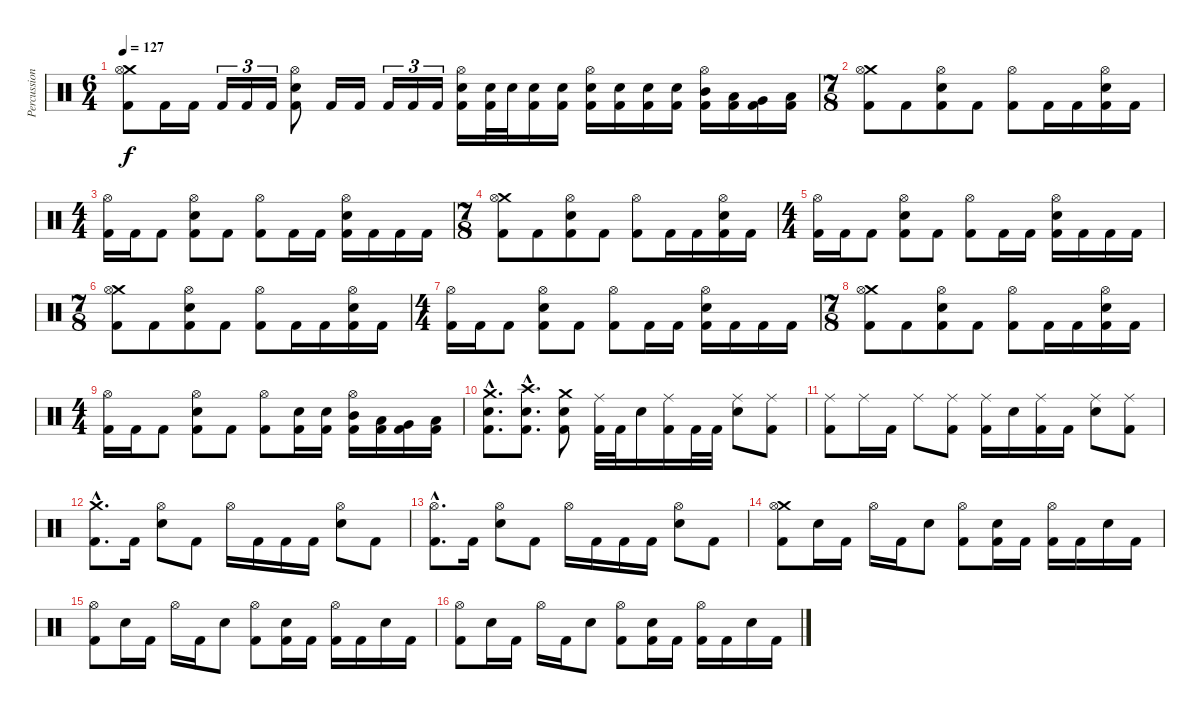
\track ("Percussion" "Percussion") {instrument percussion}
\staff {score}
\articulation defaults
\ts (6 4)
\tempo 127
\clef neutral
\ks c
("Crash medium (hit)" "Hi-Hat (open)" "Kick (hit) 2").8{dy f} "Kick (hit) 2".16 "Kick (hit) 2".16 "Kick (hit) 2".16{tu (3 2)} "Kick (hit) 2".16{tu (3 2)} "Kick (hit) 2".16{tu (3 2)} ("Hi-Hat (open)" "Electric Snare (hit)" "Kick (hit) 2").8 "Kick (hit) 2".16 "Kick (hit) 2".16 "Kick (hit) 2".16{tu (3 2)} "Kick (hit) 2".16{tu (3 2)} "Kick (hit) 2".16{tu (3 2)} ("Hi-Hat (open)" "Electric Snare (hit)" "Kick (hit) 2").16 ("Electric Snare (hit)" "Kick (hit) 2").32 "Electric Snare (hit)".32 ("Electric Snare (hit)" "Kick (hit) 2").16 ("Electric Snare (hit)" "Kick (hit) 2").16 ("Hi-Hat (open)" "Electric Snare (hit)" "Kick (hit) 2").16 ("Electric Snare (hit)" "Kick (hit) 2").16 ("Electric Snare (hit)" "Kick (hit) 2").16 ("Electric Snare (hit)" "Kick (hit) 2").16 ("Hi-Hat (open)" "Mid Tom (hit)" "Kick (hit) 2").16 ("Low Tom (hit)" "Kick (hit) 2").16 ("Very Low Tom (hit)" "Kick (hit) 2").16 ("Low Floor Tom (hit)" "Kick (hit) 2").16 |
\ts (7 8)
("Crash medium (hit)" "Hi-Hat (open)" "Kick (hit) 2").8 "Kick (hit) 2".8 ("Hi-Hat (open)" "Electric Snare (hit)" "Kick (hit) 2").8 "Kick (hit) 2".8 ("Hi-Hat (open)" "Kick (hit) 2").8 "Kick (hit) 2".16 "Kick (hit) 2".16 ("Hi-Hat (open)" "Electric Snare (hit)" "Kick (hit) 2").16 "Kick (hit) 2".16 |
\ts (4 4)
("Hi-Hat (open)" "Kick (hit) 2").16 "Kick (hit) 2".16 "Kick (hit) 2".8 ("Hi-Hat (open)" "Electric Snare (hit)" "Kick (hit) 2").8 "Kick (hit) 2".8 ("Hi-Hat (open)" "Kick (hit) 2").8 "Kick (hit) 2".16 "Kick (hit) 2".16 ("Hi-Hat (open)" "Electric Snare (hit)" "Kick (hit) 2").16 "Kick (hit) 2".16 "Kick (hit) 2".16 "Kick (hit) 2".16 |
\ts (7 8)
("Crash medium (hit)" "Hi-Hat (open)" "Kick (hit) 2").8 "Kick (hit) 2".8 ("Hi-Hat (open)" "Electric Snare (hit)" "Kick (hit) 2").8 "Kick (hit) 2".8 ("Hi-Hat (open)" "Kick (hit) 2").8 "Kick (hit) 2".16 "Kick (hit) 2".16 ("Hi-Hat (open)" "Electric Snare (hit)" "Kick (hit) 2").16 "Kick (hit) 2".16 |
\ts (4 4)
("Hi-Hat (open)" "Kick (hit) 2").16 "Kick (hit) 2".16 "Kick (hit) 2".8 ("Hi-Hat (open)" "Electric Snare (hit)" "Kick (hit) 2").8 "Kick (hit) 2".8 ("Hi-Hat (open)" "Kick (hit) 2").8 "Kick (hit) 2".16 "Kick (hit) 2".16 ("Hi-Hat (open)" "Electric Snare (hit)" "Kick (hit) 2").16 "Kick (hit) 2".16 "Kick (hit) 2".16 "Kick (hit) 2".16 |
\ts (7 8)
("Crash medium (hit)" "Hi-Hat (open)" "Kick (hit) 2").8 "Kick (hit) 2".8 ("Hi-Hat (open)" "Electric Snare (hit)" "Kick (hit) 2").8 "Kick (hit) 2".8 ("Hi-Hat (open)" "Kick (hit) 2").8 "Kick (hit) 2".16 "Kick (hit) 2".16 ("Hi-Hat (open)" "Electric Snare (hit)" "Kick (hit) 2").16 "Kick (hit) 2".16 |
\ts (4 4)
("Hi-Hat (open)" "Kick (hit) 2").16 "Kick (hit) 2".16 "Kick (hit) 2".8 ("Hi-Hat (open)" "Electric Snare (hit)" "Kick (hit) 2").8 "Kick (hit) 2".8 ("Hi-Hat (open)" "Kick (hit) 2").8 "Kick (hit) 2".16 "Kick (hit) 2".16 ("Hi-Hat (open)" "Electric Snare (hit)" "Kick (hit) 2").16 "Kick (hit) 2".16 "Kick (hit) 2".16 "Kick (hit) 2".16 |
\ts (7 8)
("Crash medium (hit)" "Hi-Hat (open)" "Kick (hit) 2").8 "Kick (hit) 2".8 ("Hi-Hat (open)" "Electric Snare (hit)" "Kick (hit) 2").8 "Kick (hit) 2".8 ("Hi-Hat (open)" "Kick (hit) 2").8 "Kick (hit) 2".16 "Kick (hit) 2".16 ("Hi-Hat (open)" "Electric Snare (hit)" "Kick (hit) 2").16 "Kick (hit) 2".16 |
\ts (4 4)
("Hi-Hat (open)" "Kick (hit) 2").16 "Kick (hit) 2".16 "Kick (hit) 2".8 ("Hi-Hat (open)" "Electric Snare (hit)" "Kick (hit) 2").8 "Kick (hit) 2".8 ("Hi-Hat (open)" "Kick (hit) 2").8 ("Electric Snare (hit)" "Kick (hit) 2").16 ("Electric Snare (hit)" "Kick (hit) 2").16 ("Hi-Hat (open)" "Mid Tom (hit)" "Kick (hit) 2").16 ("Low Tom (hit)" "Kick (hit) 2").16 ("Very Low Tom (hit)" "Kick (hit) 2").16 ("Low Floor Tom (hit)" "Kick (hit) 2").16 |
("Crash medium (hit)"{hac} "Electric Snare (hit)"{hac} "Kick (hit) 2"{hac}).8{d} ("Crash high (hit)"{hac} "Electric Snare (hit)"{hac} "Kick (hit) 2"{hac}).8{d} ("Crash medium (hit)" "Electric Snare (hit)" "Kick (hit) 2").8 ("Ride (middle)" "Kick (hit) 2").32 "Kick (hit) 2".32 "Electric Snare (hit)".16 ("Ride (middle)" "Kick (hit) 2").16 "Kick (hit) 2".32 "Kick (hit) 2".32 ("Ride (middle)" "Electric Snare (hit)").8 ("Ride (middle)" "Kick (hit) 2").8 |
("Ride (middle)" "Kick (hit) 2").8 "Ride (middle)".16 "Kick (hit) 2".16 "Ride (middle)".8 ("Ride (middle)" "Kick (hit) 2").8 ("Ride (middle)" "Kick (hit) 2").16 "Electric Snare (hit)".16 ("Ride (middle)" "Kick (hit) 2").16 "Kick (hit) 2".16 ("Ride (middle)" "Electric Snare (hit)").8 ("Ride (middle)" "Kick (hit) 2").8 |
("Crash medium (hit)"{hac} "Kick (hit) 2"{hac}).8{d} "Kick (hit) 2".16 ("Hi-Hat (open)" "Electric Snare (hit)").8 "Kick (hit) 2".8 "Hi-Hat (open)".16 "Kick (hit) 2".16 "Kick (hit) 2".16 "Kick (hit) 2".16 ("Hi-Hat (open)" "Electric Snare (hit)").8 "Kick (hit) 2".8 |
("Hi-Hat (open)"{hac} "Kick (hit) 2"{hac}).8{d} "Kick (hit) 2".16 ("Hi-Hat (open)" "Electric Snare (hit)").8 "Kick (hit) 2".8 "Hi-Hat (open)".16 "Kick (hit) 2".16 "Kick (hit) 2".16 "Kick (hit) 2".16 ("Hi-Hat (open)" "Electric Snare (hit)").8 "Kick (hit) 2".8 |
("Crash medium (hit)" "Hi-Hat (open)" "Kick (hit) 2").8 "Electric Snare (hit)".16 "Kick (hit) 2".16 "Hi-Hat (open)".16 "Kick (hit) 2".16 "Electric Snare (hit)".8 ("Hi-Hat (open)" "Kick (hit) 2").8 ("Electric Snare (hit)" "Kick (hit) 2").16 "Kick (hit) 2".16 ("Hi-Hat (open)" "Kick (hit) 2").16 "Kick (hit) 2".16 "Electric Snare (hit)".16 "Kick (hit) 2".16 |
("Hi-Hat (open)" "Kick (hit) 2").8 "Electric Snare (hit)".16 "Kick (hit) 2".16 "Hi-Hat (open)".16 "Kick (hit) 2".16 "Electric Snare (hit)".8 ("Hi-Hat (open)" "Kick (hit) 2").8 ("Electric Snare (hit)" "Kick (hit) 2").16 "Kick (hit) 2".16 ("Hi-Hat (open)" "Kick (hit) 2").16 "Kick (hit) 2".16 "Electric Snare (hit)".16 "Kick (hit) 2".16 |
("Hi-Hat (open)" "Kick (hit) 2").8 "Electric Snare (hit)".16 "Kick (hit) 2".16 "Hi-Hat (open)".16 "Kick (hit) 2".16 "Electric Snare (hit)".8 ("Hi-Hat (open)" "Kick (hit) 2").8 ("Electric Snare (hit)" "Kick (hit) 2").16 "Kick (hit) 2".16 ("Hi-Hat (open)" "Kick (hit) 2").16 "Kick (hit) 2".16 "Electric Snare (hit)".16 "Kick (hit) 2".16
